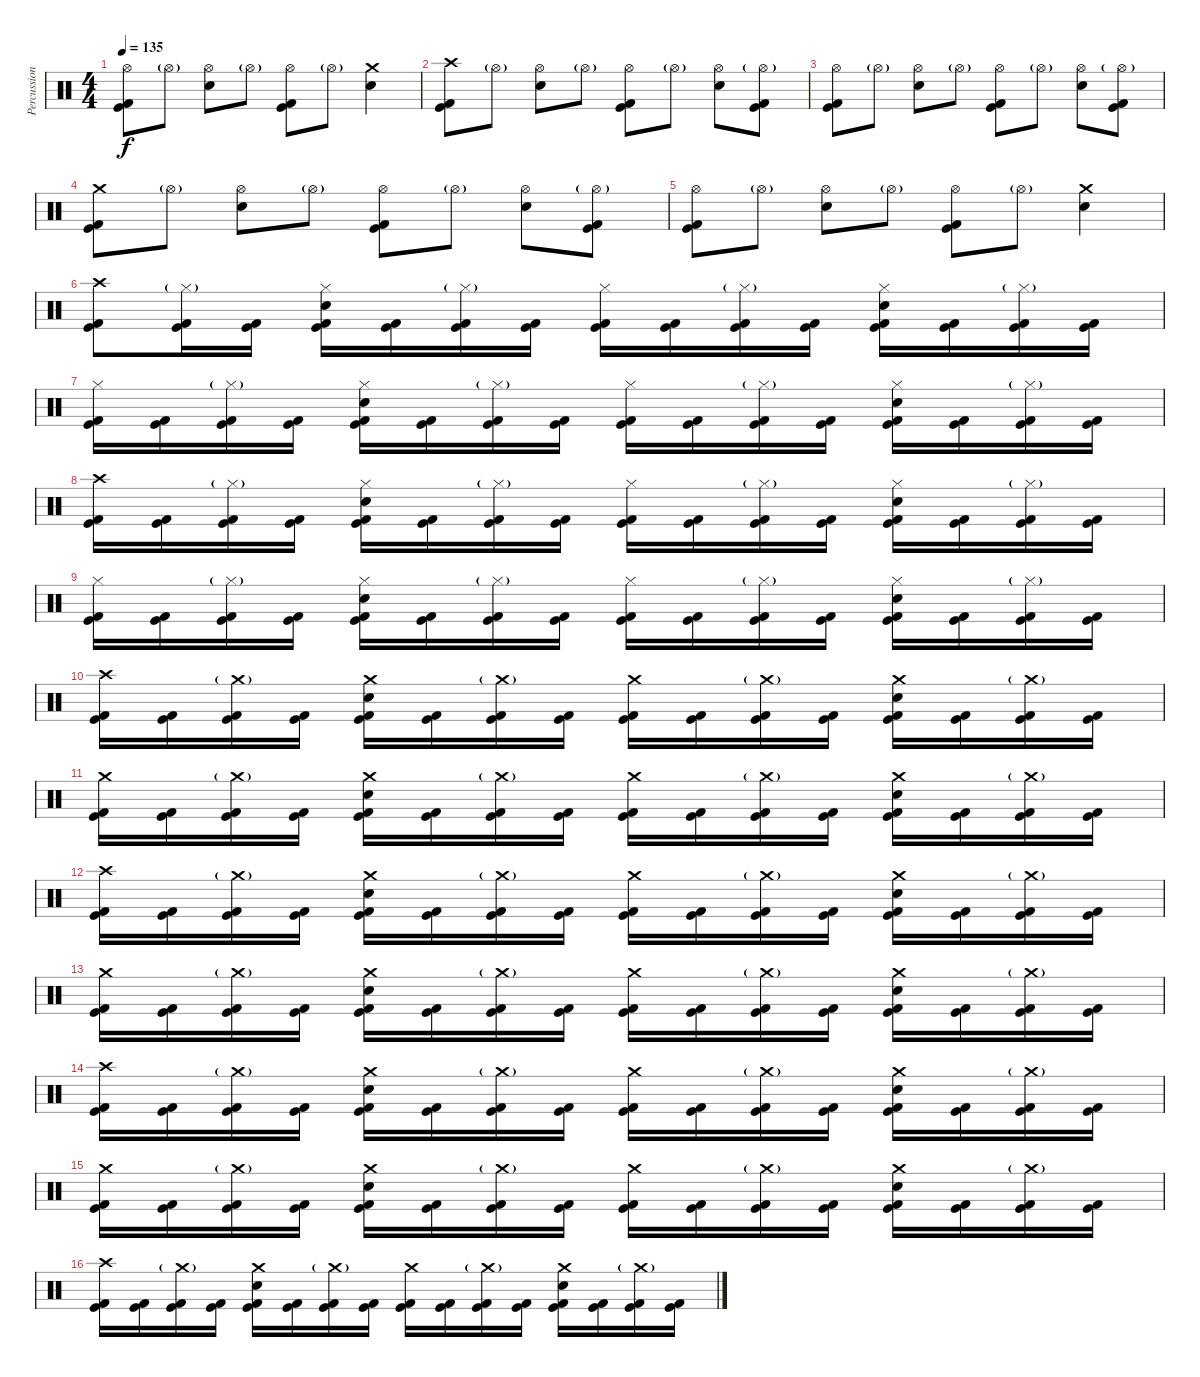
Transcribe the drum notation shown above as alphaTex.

\track ("Percussions" "Percussion") {instrument percussion}
\staff {score}
\articulation defaults
\ts (4 4)
\tempo 135
\clef neutral
\ks c
("Hi-Hat (open)" "Kick (hit)" "Kick (hit) 2").8{dy f} "Hi-Hat (open)"{g}.8 ("Hi-Hat (open)" "Electric Snare (hit)").8 "Hi-Hat (open)"{g}.8 ("Hi-Hat (open)" "Kick (hit)" "Kick (hit) 2").8 "Hi-Hat (open)"{g}.8 ("Crash medium (hit)" "Electric Snare (hit)").4 |
("Crash high (hit)" "Kick (hit)" "Kick (hit) 2").8 "Hi-Hat (open)"{g}.8 ("Hi-Hat (open)" "Electric Snare (hit)").8 "Hi-Hat (open)"{g}.8 ("Hi-Hat (open)" "Kick (hit)" "Kick (hit) 2").8 "Hi-Hat (open)"{g}.8 ("Hi-Hat (open)" "Electric Snare (hit)").8 ("Hi-Hat (open)"{g} "Kick (hit)" "Kick (hit) 2").8 |
("Hi-Hat (open)" "Kick (hit)" "Kick (hit) 2").8 "Hi-Hat (open)"{g}.8 ("Hi-Hat (open)" "Electric Snare (hit)").8 "Hi-Hat (open)"{g}.8 ("Hi-Hat (open)" "Kick (hit)" "Kick (hit) 2").8 "Hi-Hat (open)"{g}.8 ("Hi-Hat (open)" "Electric Snare (hit)").8 ("Hi-Hat (open)"{g} "Kick (hit)" "Kick (hit) 2").8 |
("Crash medium (hit)" "Kick (hit)" "Kick (hit) 2").8 "Hi-Hat (open)"{g}.8 ("Hi-Hat (open)" "Electric Snare (hit)").8 "Hi-Hat (open)"{g}.8 ("Hi-Hat (open)" "Kick (hit)" "Kick (hit) 2").8 "Hi-Hat (open)"{g}.8 ("Hi-Hat (open)" "Electric Snare (hit)").8 ("Hi-Hat (open)"{g} "Kick (hit)" "Kick (hit) 2").8 |
("Hi-Hat (open)" "Kick (hit)" "Kick (hit) 2").8 "Hi-Hat (open)"{g}.8 ("Hi-Hat (open)" "Electric Snare (hit)").8 "Hi-Hat (open)"{g}.8 ("Hi-Hat (open)" "Kick (hit)" "Kick (hit) 2").8 "Hi-Hat (open)"{g}.8 ("Crash medium (hit)" "Electric Snare (hit)").4 |
("Crash high (hit)" "Kick (hit)" "Kick (hit) 2").8 ("Hi-Hat (closed)"{g} "Kick (hit)" "Kick (hit) 2").16 ("Kick (hit)" "Kick (hit) 2").16 ("Hi-Hat (closed)" "Electric Snare (hit)" "Kick (hit)" "Kick (hit) 2").16 ("Kick (hit)" "Kick (hit) 2").16 ("Hi-Hat (closed)"{g} "Kick (hit)" "Kick (hit) 2").16 ("Kick (hit)" "Kick (hit) 2").16 ("Hi-Hat (closed)" "Kick (hit)" "Kick (hit) 2").16 ("Kick (hit)" "Kick (hit) 2").16 ("Hi-Hat (closed)"{g} "Kick (hit)" "Kick (hit) 2").16 ("Kick (hit)" "Kick (hit) 2").16 ("Hi-Hat (closed)" "Electric Snare (hit)" "Kick (hit)" "Kick (hit) 2").16 ("Kick (hit)" "Kick (hit) 2").16 ("Hi-Hat (closed)"{g} "Kick (hit)" "Kick (hit) 2").16 ("Kick (hit)" "Kick (hit) 2").16 |
("Hi-Hat (closed)" "Kick (hit)" "Kick (hit) 2").16 ("Kick (hit)" "Kick (hit) 2").16 ("Hi-Hat (closed)"{g} "Kick (hit)" "Kick (hit) 2").16 ("Kick (hit)" "Kick (hit) 2").16 ("Hi-Hat (closed)" "Electric Snare (hit)" "Kick (hit)" "Kick (hit) 2").16 ("Kick (hit)" "Kick (hit) 2").16 ("Hi-Hat (closed)"{g} "Kick (hit)" "Kick (hit) 2").16 ("Kick (hit)" "Kick (hit) 2").16 ("Hi-Hat (closed)" "Kick (hit)" "Kick (hit) 2").16 ("Kick (hit)" "Kick (hit) 2").16 ("Hi-Hat (closed)"{g} "Kick (hit)" "Kick (hit) 2").16 ("Kick (hit)" "Kick (hit) 2").16 ("Hi-Hat (closed)" "Electric Snare (hit)" "Kick (hit)" "Kick (hit) 2").16 ("Kick (hit)" "Kick (hit) 2").16 ("Hi-Hat (closed)"{g} "Kick (hit)" "Kick (hit) 2").16 ("Kick (hit)" "Kick (hit) 2").16 |
("Crash high (hit)" "Kick (hit)" "Kick (hit) 2").16 ("Kick (hit)" "Kick (hit) 2").16 ("Hi-Hat (closed)"{g} "Kick (hit)" "Kick (hit) 2").16 ("Kick (hit)" "Kick (hit) 2").16 ("Hi-Hat (closed)" "Electric Snare (hit)" "Kick (hit)" "Kick (hit) 2").16 ("Kick (hit)" "Kick (hit) 2").16 ("Hi-Hat (closed)"{g} "Kick (hit)" "Kick (hit) 2").16 ("Kick (hit)" "Kick (hit) 2").16 ("Hi-Hat (closed)" "Kick (hit)" "Kick (hit) 2").16 ("Kick (hit)" "Kick (hit) 2").16 ("Hi-Hat (closed)"{g} "Kick (hit)" "Kick (hit) 2").16 ("Kick (hit)" "Kick (hit) 2").16 ("Hi-Hat (closed)" "Electric Snare (hit)" "Kick (hit)" "Kick (hit) 2").16 ("Kick (hit)" "Kick (hit) 2").16 ("Hi-Hat (closed)"{g} "Kick (hit)" "Kick (hit) 2").16 ("Kick (hit)" "Kick (hit) 2").16 |
("Hi-Hat (closed)" "Kick (hit)" "Kick (hit) 2").16 ("Kick (hit)" "Kick (hit) 2").16 ("Hi-Hat (closed)"{g} "Kick (hit)" "Kick (hit) 2").16 ("Kick (hit)" "Kick (hit) 2").16 ("Hi-Hat (closed)" "Electric Snare (hit)" "Kick (hit)" "Kick (hit) 2").16 ("Kick (hit)" "Kick (hit) 2").16 ("Hi-Hat (closed)"{g} "Kick (hit)" "Kick (hit) 2").16 ("Kick (hit)" "Kick (hit) 2").16 ("Hi-Hat (closed)" "Kick (hit)" "Kick (hit) 2").16 ("Kick (hit)" "Kick (hit) 2").16 ("Hi-Hat (closed)"{g} "Kick (hit)" "Kick (hit) 2").16 ("Kick (hit)" "Kick (hit) 2").16 ("Hi-Hat (closed)" "Electric Snare (hit)" "Kick (hit)" "Kick (hit) 2").16 ("Kick (hit)" "Kick (hit) 2").16 ("Hi-Hat (closed)"{g} "Kick (hit)" "Kick (hit) 2").16 ("Kick (hit)" "Kick (hit) 2").16 |
("Crash high (hit)" "Kick (hit)" "Kick (hit) 2").16 ("Kick (hit)" "Kick (hit) 2").16 ("Crash medium (hit)"{g} "Kick (hit)" "Kick (hit) 2").16 ("Kick (hit)" "Kick (hit) 2").16 ("Crash medium (hit)" "Electric Snare (hit)" "Kick (hit)" "Kick (hit) 2").16 ("Kick (hit)" "Kick (hit) 2").16 ("Crash medium (hit)"{g} "Kick (hit)" "Kick (hit) 2").16 ("Kick (hit)" "Kick (hit) 2").16 ("Crash medium (hit)" "Kick (hit)" "Kick (hit) 2").16 ("Kick (hit)" "Kick (hit) 2").16 ("Crash medium (hit)"{g} "Kick (hit)" "Kick (hit) 2").16 ("Kick (hit)" "Kick (hit) 2").16 ("Crash medium (hit)" "Electric Snare (hit)" "Kick (hit)" "Kick (hit) 2").16 ("Kick (hit)" "Kick (hit) 2").16 ("Crash medium (hit)"{g} "Kick (hit)" "Kick (hit) 2").16 ("Kick (hit)" "Kick (hit) 2").16 |
("Crash medium (hit)" "Kick (hit)" "Kick (hit) 2").16 ("Kick (hit)" "Kick (hit) 2").16 ("Crash medium (hit)"{g} "Kick (hit)" "Kick (hit) 2").16 ("Kick (hit)" "Kick (hit) 2").16 ("Crash medium (hit)" "Electric Snare (hit)" "Kick (hit)" "Kick (hit) 2").16 ("Kick (hit)" "Kick (hit) 2").16 ("Crash medium (hit)"{g} "Kick (hit)" "Kick (hit) 2").16 ("Kick (hit)" "Kick (hit) 2").16 ("Crash medium (hit)" "Kick (hit)" "Kick (hit) 2").16 ("Kick (hit)" "Kick (hit) 2").16 ("Crash medium (hit)"{g} "Kick (hit)" "Kick (hit) 2").16 ("Kick (hit)" "Kick (hit) 2").16 ("Crash medium (hit)" "Electric Snare (hit)" "Kick (hit)" "Kick (hit) 2").16 ("Kick (hit)" "Kick (hit) 2").16 ("Crash medium (hit)"{g} "Kick (hit)" "Kick (hit) 2").16 ("Kick (hit)" "Kick (hit) 2").16 |
("Crash high (hit)" "Kick (hit)" "Kick (hit) 2").16 ("Kick (hit)" "Kick (hit) 2").16 ("Crash medium (hit)"{g} "Kick (hit)" "Kick (hit) 2").16 ("Kick (hit)" "Kick (hit) 2").16 ("Crash medium (hit)" "Electric Snare (hit)" "Kick (hit)" "Kick (hit) 2").16 ("Kick (hit)" "Kick (hit) 2").16 ("Crash medium (hit)"{g} "Kick (hit)" "Kick (hit) 2").16 ("Kick (hit)" "Kick (hit) 2").16 ("Crash medium (hit)" "Kick (hit)" "Kick (hit) 2").16 ("Kick (hit)" "Kick (hit) 2").16 ("Crash medium (hit)"{g} "Kick (hit)" "Kick (hit) 2").16 ("Kick (hit)" "Kick (hit) 2").16 ("Crash medium (hit)" "Electric Snare (hit)" "Kick (hit)" "Kick (hit) 2").16 ("Kick (hit)" "Kick (hit) 2").16 ("Crash medium (hit)"{g} "Kick (hit)" "Kick (hit) 2").16 ("Kick (hit)" "Kick (hit) 2").16 |
("Crash medium (hit)" "Kick (hit)" "Kick (hit) 2").16 ("Kick (hit)" "Kick (hit) 2").16 ("Crash medium (hit)"{g} "Kick (hit)" "Kick (hit) 2").16 ("Kick (hit)" "Kick (hit) 2").16 ("Crash medium (hit)" "Electric Snare (hit)" "Kick (hit)" "Kick (hit) 2").16 ("Kick (hit)" "Kick (hit) 2").16 ("Crash medium (hit)"{g} "Kick (hit)" "Kick (hit) 2").16 ("Kick (hit)" "Kick (hit) 2").16 ("Crash medium (hit)" "Kick (hit)" "Kick (hit) 2").16 ("Kick (hit)" "Kick (hit) 2").16 ("Crash medium (hit)"{g} "Kick (hit)" "Kick (hit) 2").16 ("Kick (hit)" "Kick (hit) 2").16 ("Crash medium (hit)" "Electric Snare (hit)" "Kick (hit)" "Kick (hit) 2").16 ("Kick (hit)" "Kick (hit) 2").16 ("Crash medium (hit)"{g} "Kick (hit)" "Kick (hit) 2").16 ("Kick (hit)" "Kick (hit) 2").16 |
("Crash high (hit)" "Kick (hit)" "Kick (hit) 2").16 ("Kick (hit)" "Kick (hit) 2").16 ("Crash medium (hit)"{g} "Kick (hit)" "Kick (hit) 2").16 ("Kick (hit)" "Kick (hit) 2").16 ("Crash medium (hit)" "Electric Snare (hit)" "Kick (hit)" "Kick (hit) 2").16 ("Kick (hit)" "Kick (hit) 2").16 ("Crash medium (hit)"{g} "Kick (hit)" "Kick (hit) 2").16 ("Kick (hit)" "Kick (hit) 2").16 ("Crash medium (hit)" "Kick (hit)" "Kick (hit) 2").16 ("Kick (hit)" "Kick (hit) 2").16 ("Crash medium (hit)"{g} "Kick (hit)" "Kick (hit) 2").16 ("Kick (hit)" "Kick (hit) 2").16 ("Crash medium (hit)" "Electric Snare (hit)" "Kick (hit)" "Kick (hit) 2").16 ("Kick (hit)" "Kick (hit) 2").16 ("Crash medium (hit)"{g} "Kick (hit)" "Kick (hit) 2").16 ("Kick (hit)" "Kick (hit) 2").16 |
("Crash medium (hit)" "Kick (hit)" "Kick (hit) 2").16 ("Kick (hit)" "Kick (hit) 2").16 ("Crash medium (hit)"{g} "Kick (hit)" "Kick (hit) 2").16 ("Kick (hit)" "Kick (hit) 2").16 ("Crash medium (hit)" "Electric Snare (hit)" "Kick (hit)" "Kick (hit) 2").16 ("Kick (hit)" "Kick (hit) 2").16 ("Crash medium (hit)"{g} "Kick (hit)" "Kick (hit) 2").16 ("Kick (hit)" "Kick (hit) 2").16 ("Crash medium (hit)" "Kick (hit)" "Kick (hit) 2").16 ("Kick (hit)" "Kick (hit) 2").16 ("Crash medium (hit)"{g} "Kick (hit)" "Kick (hit) 2").16 ("Kick (hit)" "Kick (hit) 2").16 ("Crash medium (hit)" "Electric Snare (hit)" "Kick (hit)" "Kick (hit) 2").16 ("Kick (hit)" "Kick (hit) 2").16 ("Crash medium (hit)"{g} "Kick (hit)" "Kick (hit) 2").16 ("Kick (hit)" "Kick (hit) 2").16 |
("Crash high (hit)" "Kick (hit)" "Kick (hit) 2").16 ("Kick (hit)" "Kick (hit) 2").16 ("Crash medium (hit)"{g} "Kick (hit)" "Kick (hit) 2").16 ("Kick (hit)" "Kick (hit) 2").16 ("Crash medium (hit)" "Electric Snare (hit)" "Kick (hit)" "Kick (hit) 2").16 ("Kick (hit)" "Kick (hit) 2").16 ("Crash medium (hit)"{g} "Kick (hit)" "Kick (hit) 2").16 ("Kick (hit)" "Kick (hit) 2").16 ("Crash medium (hit)" "Kick (hit)" "Kick (hit) 2").16 ("Kick (hit)" "Kick (hit) 2").16 ("Crash medium (hit)"{g} "Kick (hit)" "Kick (hit) 2").16 ("Kick (hit)" "Kick (hit) 2").16 ("Crash medium (hit)" "Electric Snare (hit)" "Kick (hit)" "Kick (hit) 2").16 ("Kick (hit)" "Kick (hit) 2").16 ("Crash medium (hit)"{g} "Kick (hit)" "Kick (hit) 2").16 ("Kick (hit)" "Kick (hit) 2").16
